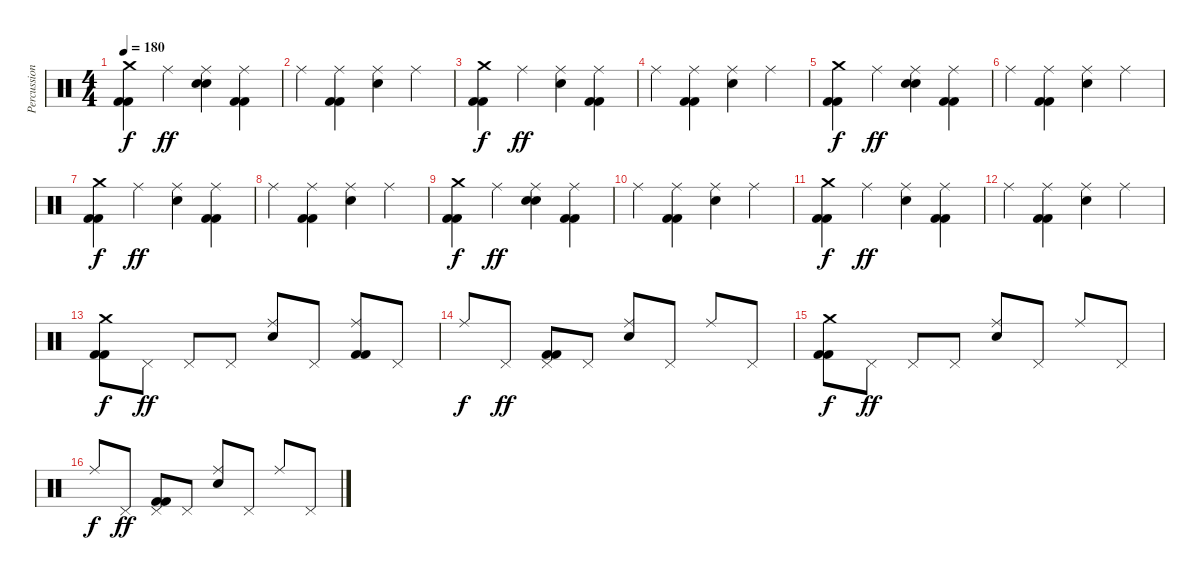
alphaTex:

\track ("Percussion" "Percussion") {instrument percussion}
\staff {score}
\articulation defaults
\ts (4 4)
\tempo 180
\clef neutral
\ks c
("Crash medium (hit)" "Kick (hit) 2" "Kick (hit) 2").4{dy f} "Ride (middle)".4{dy ff} ("Ride (middle)" "Electric Snare (hit)" "Snare (hit) 2").4 ("Ride (middle)" "Kick (hit) 2" "Kick (hit) 2").4 |
"Ride (middle)".4 ("Ride (middle)" "Kick (hit) 2" "Kick (hit) 2").4 ("Ride (middle)" "Electric Snare (hit)").4 "Ride (middle)".4 |
("Crash medium (hit)" "Kick (hit) 2" "Kick (hit) 2").4{dy f} "Ride (middle)".4{dy ff} ("Ride (middle)" "Electric Snare (hit)").4 ("Ride (middle)" "Kick (hit) 2" "Kick (hit) 2").4 |
"Ride (middle)".4 ("Ride (middle)" "Kick (hit) 2" "Kick (hit) 2").4 ("Ride (middle)" "Electric Snare (hit)").4 "Ride (middle)".4 |
("Crash medium (hit)" "Kick (hit) 2" "Kick (hit) 2").4{dy f} "Ride (middle)".4{dy ff} ("Ride (middle)" "Electric Snare (hit)" "Snare (hit) 2").4 ("Ride (middle)" "Kick (hit) 2" "Kick (hit) 2").4 |
"Ride (middle)".4 ("Ride (middle)" "Kick (hit) 2" "Kick (hit) 2").4 ("Ride (middle)" "Electric Snare (hit)").4 "Ride (middle)".4 |
("Crash medium (hit)" "Kick (hit) 2" "Kick (hit) 2").4{dy f} "Ride (middle)".4{dy ff} ("Ride (middle)" "Electric Snare (hit)").4 ("Ride (middle)" "Kick (hit) 2" "Kick (hit) 2").4 |
"Ride (middle)".4 ("Ride (middle)" "Kick (hit) 2" "Kick (hit) 2").4 ("Ride (middle)" "Electric Snare (hit)").4 "Ride (middle)".4 |
("Crash medium (hit)" "Kick (hit) 2" "Kick (hit) 2").4{dy f} "Ride (middle)".4{dy ff} ("Ride (middle)" "Electric Snare (hit)" "Snare (hit) 2").4 ("Ride (middle)" "Kick (hit) 2" "Kick (hit) 2").4 |
"Ride (middle)".4 ("Ride (middle)" "Kick (hit) 2" "Kick (hit) 2").4 ("Ride (middle)" "Electric Snare (hit)").4 "Ride (middle)".4 |
("Crash medium (hit)" "Kick (hit) 2" "Kick (hit) 2").4{dy f} "Ride (middle)".4{dy ff} ("Ride (middle)" "Electric Snare (hit)").4 ("Ride (middle)" "Kick (hit) 2" "Kick (hit) 2").4 |
"Ride (middle)".4 ("Ride (middle)" "Kick (hit) 2" "Kick (hit) 2").4 ("Ride (middle)" "Electric Snare (hit)").4 "Ride (middle)".4 |
("Crash medium (hit)" "Kick (hit) 2" "Kick (hit) 2").8{dy f} "Pedal Hi-Hat (hit)".8{dy ff} "Pedal Hi-Hat (hit)".8 "Pedal Hi-Hat (hit)".8 ("Ride (middle)" "Electric Snare (hit)").8 "Pedal Hi-Hat (hit)".8 ("Ride (middle)" "Kick (hit) 2" "Kick (hit) 2").8 "Pedal Hi-Hat (hit)".8 |
"Ride (middle)".8{dy f} "Pedal Hi-Hat (hit)".8{dy ff} ("Pedal Hi-Hat (hit)" "Kick (hit) 2" "Kick (hit) 2").8 "Pedal Hi-Hat (hit)".8 ("Ride (middle)" "Electric Snare (hit)").8 "Pedal Hi-Hat (hit)".8 "Ride (middle)".8 "Pedal Hi-Hat (hit)".8 |
("Crash medium (hit)" "Kick (hit) 2" "Kick (hit) 2").8{dy f} "Pedal Hi-Hat (hit)".8{dy ff} "Pedal Hi-Hat (hit)".8 "Pedal Hi-Hat (hit)".8 ("Ride (middle)" "Electric Snare (hit)").8 "Pedal Hi-Hat (hit)".8 "Ride (middle)".8 "Pedal Hi-Hat (hit)".8 |
"Ride (middle)".8{dy f} "Pedal Hi-Hat (hit)".8{dy ff} ("Pedal Hi-Hat (hit)" "Kick (hit) 2" "Kick (hit) 2").8 "Pedal Hi-Hat (hit)".8 ("Ride (middle)" "Electric Snare (hit)").8 "Pedal Hi-Hat (hit)".8 "Ride (middle)".8 "Pedal Hi-Hat (hit)".8
